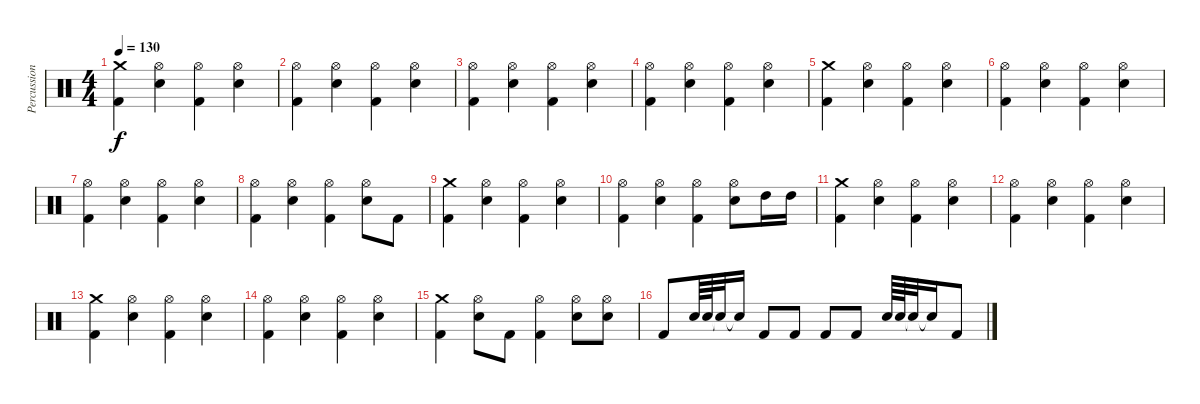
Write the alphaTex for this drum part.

\track ("Percussions" "Percussion") {instrument percussion}
\staff {score}
\articulation defaults
\ts (4 4)
\tempo 130
\clef neutral
\ks c
("Crash medium (hit)" "Kick (hit) 2").4{dy f} ("Hi-Hat (open)" "Electric Snare (hit)").4 ("Hi-Hat (open)" "Kick (hit) 2").4 ("Hi-Hat (open)" "Electric Snare (hit)").4 |
("Hi-Hat (open)" "Kick (hit) 2").4 ("Hi-Hat (open)" "Electric Snare (hit)").4 ("Hi-Hat (open)" "Kick (hit) 2").4 ("Hi-Hat (open)" "Electric Snare (hit)").4 |
("Hi-Hat (open)" "Kick (hit) 2").4 ("Hi-Hat (open)" "Electric Snare (hit)").4 ("Hi-Hat (open)" "Kick (hit) 2").4 ("Hi-Hat (open)" "Electric Snare (hit)").4 |
("Hi-Hat (open)" "Kick (hit) 2").4 ("Hi-Hat (open)" "Electric Snare (hit)").4 ("Hi-Hat (open)" "Kick (hit) 2").4 ("Hi-Hat (open)" "Electric Snare (hit)").4 |
("Crash medium (hit)" "Kick (hit) 2").4 ("Hi-Hat (open)" "Electric Snare (hit)").4 ("Hi-Hat (open)" "Kick (hit) 2").4 ("Hi-Hat (open)" "Electric Snare (hit)").4 |
("Hi-Hat (open)" "Kick (hit) 2").4 ("Hi-Hat (open)" "Electric Snare (hit)").4 ("Hi-Hat (open)" "Kick (hit) 2").4 ("Hi-Hat (open)" "Electric Snare (hit)").4 |
("Hi-Hat (open)" "Kick (hit) 2").4 ("Hi-Hat (open)" "Electric Snare (hit)").4 ("Hi-Hat (open)" "Kick (hit) 2").4 ("Hi-Hat (open)" "Electric Snare (hit)").4 |
("Hi-Hat (open)" "Kick (hit) 2").4 ("Hi-Hat (open)" "Electric Snare (hit)").4 ("Hi-Hat (open)" "Kick (hit) 2").4 ("Hi-Hat (open)" "Electric Snare (hit)").8 "Kick (hit) 2".8 |
("Crash medium (hit)" "Kick (hit) 2").4 ("Hi-Hat (open)" "Electric Snare (hit)").4 ("Hi-Hat (open)" "Kick (hit) 2").4 ("Hi-Hat (open)" "Electric Snare (hit)").4 |
("Hi-Hat (open)" "Kick (hit) 2").4 ("Hi-Hat (open)" "Electric Snare (hit)").4 ("Hi-Hat (open)" "Kick (hit) 2").4 ("Hi-Hat (open)" "Electric Snare (hit)").8 "High Tom (hit)".16 "High Tom (hit)".16 |
("Crash medium (hit)" "Kick (hit) 2").4 ("Hi-Hat (open)" "Electric Snare (hit)").4 ("Hi-Hat (open)" "Kick (hit) 2").4 ("Hi-Hat (open)" "Electric Snare (hit)").4 |
("Hi-Hat (open)" "Kick (hit) 2").4 ("Hi-Hat (open)" "Electric Snare (hit)").4 ("Hi-Hat (open)" "Kick (hit) 2").4 ("Hi-Hat (open)" "Electric Snare (hit)").4 |
("Crash medium (hit)" "Kick (hit) 2").4 ("Hi-Hat (open)" "Electric Snare (hit)").4 ("Hi-Hat (open)" "Kick (hit) 2").4 ("Hi-Hat (open)" "Electric Snare (hit)").4 |
("Hi-Hat (open)" "Kick (hit) 2").4 ("Hi-Hat (open)" "Electric Snare (hit)").4 ("Hi-Hat (open)" "Kick (hit) 2").4 ("Hi-Hat (open)" "Electric Snare (hit)").4 |
("Crash medium (hit)" "Kick (hit) 2").4 ("Hi-Hat (open)" "Electric Snare (hit)").8 "Kick (hit) 2".8 ("Hi-Hat (open)" "Kick (hit) 2").4 ("Hi-Hat (open)" "Electric Snare (hit)").8 ("Hi-Hat (open)" "Electric Snare (hit)").8 |
"Kick (hit) 2".8 "Electric Snare (hit)".64 "Electric Snare (hit)".64 "Snare (hit)"{t}.32 "Snare (hit)"{t}.16 "Kick (hit) 2".8 "Kick (hit) 2".8 "Kick (hit) 2".8 "Kick (hit) 2".8 "Electric Snare (hit)".64 "Electric Snare (hit)".64 "Snare (hit)"{t}.32 "Snare (hit)"{t}.16 "Kick (hit) 2".8
